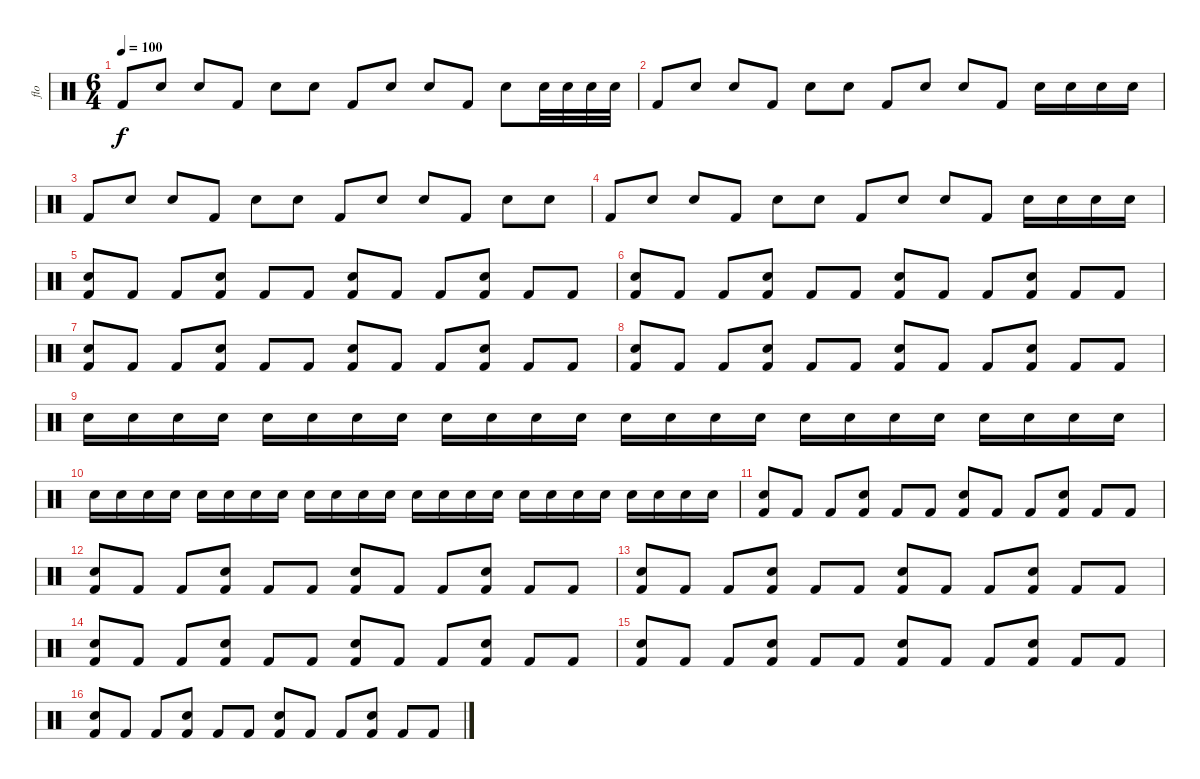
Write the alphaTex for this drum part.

\track ("flo" "flo") {instrument percussion}
\staff {score}
\articulation defaults
\ts (6 4)
\tempo 100
\clef neutral
\ks c "Kick (hit) 2".8{dy f} "Electric Snare (hit)".8 "Electric Snare (hit)".8 "Kick (hit) 2".8 "Electric Snare (hit)".8 "Electric Snare (hit)".8 "Kick (hit) 2".8 "Electric Snare (hit)".8 "Electric Snare (hit)".8 "Kick (hit) 2".8 "Electric Snare (hit)".8 "Electric Snare (hit)".32 "Electric Snare (hit)".32 "Electric Snare (hit)".32 "Electric Snare (hit)".32
|
"Kick (hit) 2".8 "Electric Snare (hit)".8 "Electric Snare (hit)".8 "Kick (hit) 2".8 "Electric Snare (hit)".8 "Electric Snare (hit)".8 "Kick (hit) 2".8 "Electric Snare (hit)".8 "Electric Snare (hit)".8 "Kick (hit) 2".8 "Electric Snare (hit)".16 "Electric Snare (hit)".16 "Electric Snare (hit)".16 "Electric Snare (hit)".16 |
"Kick (hit) 2".8 "Electric Snare (hit)".8 "Electric Snare (hit)".8 "Kick (hit) 2".8 "Electric Snare (hit)".8 "Electric Snare (hit)".8 "Kick (hit) 2".8 "Electric Snare (hit)".8 "Electric Snare (hit)".8 "Kick (hit) 2".8 "Electric Snare (hit)".8 "Electric Snare (hit)".8 |
"Kick (hit) 2".8 "Electric Snare (hit)".8 "Electric Snare (hit)".8 "Kick (hit) 2".8 "Electric Snare (hit)".8 "Electric Snare (hit)".8 "Kick (hit) 2".8 "Electric Snare (hit)".8 "Electric Snare (hit)".8 "Kick (hit) 2".8 "Electric Snare (hit)".16 "Electric Snare (hit)".16 "Electric Snare (hit)".16 "Electric Snare (hit)".16 |
("Kick (hit) 2" "Electric Snare (hit)").8 "Kick (hit) 2".8 "Kick (hit) 2".8 ("Kick (hit) 2" "Electric Snare (hit)").8 "Kick (hit) 2".8 "Kick (hit) 2".8 ("Kick (hit) 2" "Electric Snare (hit)").8 "Kick (hit) 2".8 "Kick (hit) 2".8 ("Kick (hit) 2" "Electric Snare (hit)").8 "Kick (hit) 2".8 "Kick (hit) 2".8 |
("Kick (hit) 2" "Electric Snare (hit)").8 "Kick (hit) 2".8 "Kick (hit) 2".8 ("Kick (hit) 2" "Electric Snare (hit)").8 "Kick (hit) 2".8 "Kick (hit) 2".8 ("Kick (hit) 2" "Electric Snare (hit)").8 "Kick (hit) 2".8 "Kick (hit) 2".8 ("Kick (hit) 2" "Electric Snare (hit)").8 "Kick (hit) 2".8 "Kick (hit) 2".8 |
("Kick (hit) 2" "Electric Snare (hit)").8 "Kick (hit) 2".8 "Kick (hit) 2".8 ("Kick (hit) 2" "Electric Snare (hit)").8 "Kick (hit) 2".8 "Kick (hit) 2".8 ("Kick (hit) 2" "Electric Snare (hit)").8 "Kick (hit) 2".8 "Kick (hit) 2".8 ("Kick (hit) 2" "Electric Snare (hit)").8 "Kick (hit) 2".8 "Kick (hit) 2".8 |
("Kick (hit) 2" "Electric Snare (hit)").8 "Kick (hit) 2".8 "Kick (hit) 2".8 ("Kick (hit) 2" "Electric Snare (hit)").8 "Kick (hit) 2".8 "Kick (hit) 2".8 ("Kick (hit) 2" "Electric Snare (hit)").8 "Kick (hit) 2".8 "Kick (hit) 2".8 ("Kick (hit) 2" "Electric Snare (hit)").8 "Kick (hit) 2".8 "Kick (hit) 2".8 |
"Electric Snare (hit)".16 "Electric Snare (hit)".16 "Electric Snare (hit)".16 "Electric Snare (hit)".16 "Electric Snare (hit)".16 "Electric Snare (hit)".16 "Electric Snare (hit)".16 "Electric Snare (hit)".16 "Electric Snare (hit)".16 "Electric Snare (hit)".16 "Electric Snare (hit)".16 "Electric Snare (hit)".16 "Electric Snare (hit)".16 "Electric Snare (hit)".16 "Electric Snare (hit)".16 "Electric Snare (hit)".16 "Electric Snare (hit)".16 "Electric Snare (hit)".16 "Electric Snare (hit)".16 "Electric Snare (hit)".16 "Electric Snare (hit)".16 "Electric Snare (hit)".16 "Electric Snare (hit)".16 "Electric Snare (hit)".16 |
"Electric Snare (hit)".16 "Electric Snare (hit)".16 "Electric Snare (hit)".16 "Electric Snare (hit)".16 "Electric Snare (hit)".16 "Electric Snare (hit)".16 "Electric Snare (hit)".16 "Electric Snare (hit)".16 "Electric Snare (hit)".16 "Electric Snare (hit)".16 "Electric Snare (hit)".16 "Electric Snare (hit)".16 "Electric Snare (hit)".16 "Electric Snare (hit)".16 "Electric Snare (hit)".16 "Electric Snare (hit)".16 "Electric Snare (hit)".16 "Electric Snare (hit)".16 "Electric Snare (hit)".16 "Electric Snare (hit)".16 "Electric Snare (hit)".16 "Electric Snare (hit)".16 "Electric Snare (hit)".16 "Electric Snare (hit)".16 |
("Kick (hit) 2" "Electric Snare (hit)").8 "Kick (hit) 2".8 "Kick (hit) 2".8 ("Kick (hit) 2" "Electric Snare (hit)").8 "Kick (hit) 2".8 "Kick (hit) 2".8 ("Kick (hit) 2" "Electric Snare (hit)").8 "Kick (hit) 2".8 "Kick (hit) 2".8 ("Kick (hit) 2" "Electric Snare (hit)").8 "Kick (hit) 2".8 "Kick (hit) 2".8 |
("Kick (hit) 2" "Electric Snare (hit)").8 "Kick (hit) 2".8 "Kick (hit) 2".8 ("Kick (hit) 2" "Electric Snare (hit)").8 "Kick (hit) 2".8 "Kick (hit) 2".8 ("Kick (hit) 2" "Electric Snare (hit)").8 "Kick (hit) 2".8 "Kick (hit) 2".8 ("Kick (hit) 2" "Electric Snare (hit)").8 "Kick (hit) 2".8 "Kick (hit) 2".8 |
("Kick (hit) 2" "Electric Snare (hit)").8 "Kick (hit) 2".8 "Kick (hit) 2".8 ("Kick (hit) 2" "Electric Snare (hit)").8 "Kick (hit) 2".8 "Kick (hit) 2".8 ("Kick (hit) 2" "Electric Snare (hit)").8 "Kick (hit) 2".8 "Kick (hit) 2".8 ("Kick (hit) 2" "Electric Snare (hit)").8 "Kick (hit) 2".8 "Kick (hit) 2".8 |
("Kick (hit) 2" "Electric Snare (hit)").8 "Kick (hit) 2".8 "Kick (hit) 2".8 ("Kick (hit) 2" "Electric Snare (hit)").8 "Kick (hit) 2".8 "Kick (hit) 2".8 ("Kick (hit) 2" "Electric Snare (hit)").8 "Kick (hit) 2".8 "Kick (hit) 2".8 ("Kick (hit) 2" "Electric Snare (hit)").8 "Kick (hit) 2".8 "Kick (hit) 2".8 |
("Kick (hit) 2" "Electric Snare (hit)").8 "Kick (hit) 2".8 "Kick (hit) 2".8 ("Kick (hit) 2" "Electric Snare (hit)").8 "Kick (hit) 2".8 "Kick (hit) 2".8 ("Kick (hit) 2" "Electric Snare (hit)").8 "Kick (hit) 2".8 "Kick (hit) 2".8 ("Kick (hit) 2" "Electric Snare (hit)").8 "Kick (hit) 2".8 "Kick (hit) 2".8 |
("Kick (hit) 2" "Electric Snare (hit)").8 "Kick (hit) 2".8 "Kick (hit) 2".8 ("Kick (hit) 2" "Electric Snare (hit)").8 "Kick (hit) 2".8 "Kick (hit) 2".8 ("Kick (hit) 2" "Electric Snare (hit)").8 "Kick (hit) 2".8 "Kick (hit) 2".8 ("Kick (hit) 2" "Electric Snare (hit)").8 "Kick (hit) 2".8 "Kick (hit) 2".8
